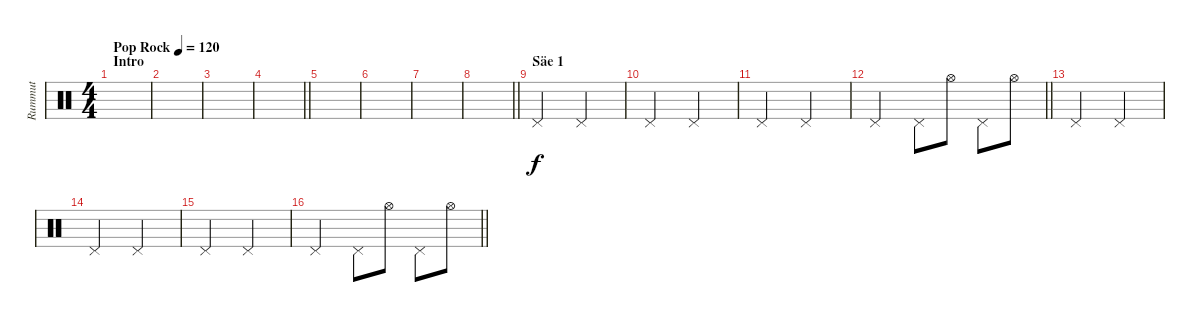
\track ("Rummut" "Rummut") {instrument percussion}
\staff {score}
\articulation defaults
\ts (4 4)
\section ("" "Intro")
\tempo (120 "Pop Rock")
\clef neutral
\ks c
|
|
|
\barLineRight lightlight
|
|
|
|
\barLineRight lightlight
|
\section ("" "Säe 1")
"Pedal Hi-Hat (hit)".2 "Pedal Hi-Hat (hit)".2 |
"Pedal Hi-Hat (hit)".2 "Pedal Hi-Hat (hit)".2 |
"Pedal Hi-Hat (hit)".2 "Pedal Hi-Hat (hit)".2 |
\barLineRight lightlight "Pedal Hi-Hat (hit)".2 "Pedal Hi-Hat (hit)".8 "Hi-Hat (open)".8 "Pedal Hi-Hat (hit)".8 "Hi-Hat (open)".8
|
"Pedal Hi-Hat (hit)".2 "Pedal Hi-Hat (hit)".2 |
"Pedal Hi-Hat (hit)".2 "Pedal Hi-Hat (hit)".2 |
"Pedal Hi-Hat (hit)".2 "Pedal Hi-Hat (hit)".2 |
\barLineRight lightlight "Pedal Hi-Hat (hit)".2 "Pedal Hi-Hat (hit)".8 "Hi-Hat (open)".8 "Pedal Hi-Hat (hit)".8 "Hi-Hat (open)".8
